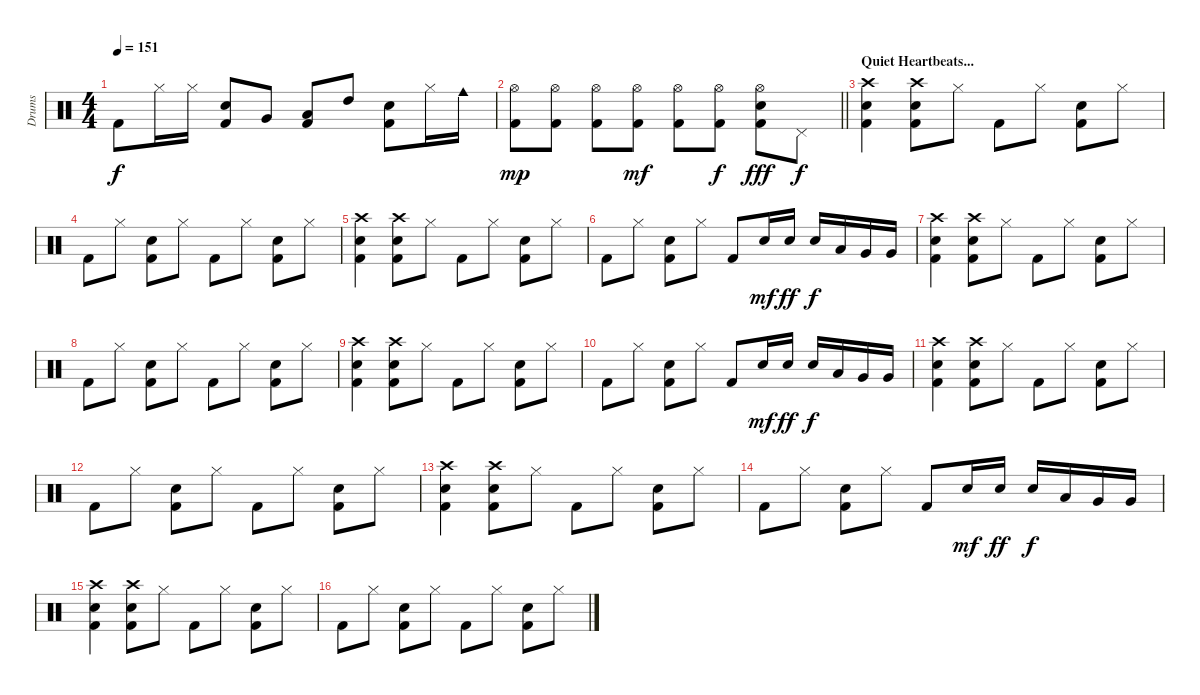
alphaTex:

\track ("Drums" "Drums") {instrument percussion}
\staff {score}
\articulation defaults
\ts (4 4)
\tempo 151
\clef neutral
\ks c "Kick (hit) 2".8{dy f} "Hi-Hat (closed)".16 "Hi-Hat (closed)".16
("Electric Snare (hit)" "Kick (hit) 2").8 "Very Low Tom (hit)".8 ("Low Tom (hit)" "Kick (hit) 2").8 "High Tom (hit)".8 ("Electric Snare (hit)" "Kick (hit) 2").8 "Hi-Hat (closed)".16 "Cowbell medium (hit)".16 |
\barLineRight lightlight
("Hi-Hat (open)" "Kick (hit) 2").8{dy mp} ("Hi-Hat (open)" "Kick (hit) 2").8 ("Hi-Hat (open)" "Kick (hit) 2").8 ("Hi-Hat (open)" "Kick (hit) 2").8{dy mf} ("Hi-Hat (open)" "Kick (hit) 2").8 ("Hi-Hat (open)" "Kick (hit) 2").8{dy f} ("Hi-Hat (open)" "Electric Snare (hit)" "Kick (hit) 2").8{dy fff} "Pedal Hi-Hat (hit)".8{dy f} |
\section ("" "Quiet Heartbeats...")
("Crash high (hit)" "Electric Snare (hit)" "Kick (hit) 2").4 ("Crash high (hit)" "Electric Snare (hit)" "Kick (hit) 2").8 "Hi-Hat (closed)".8 "Kick (hit) 2".8 "Hi-Hat (closed)".8 ("Electric Snare (hit)" "Kick (hit) 2").8 "Hi-Hat (closed)".8 |
"Kick (hit) 2".8 "Hi-Hat (closed)".8 ("Electric Snare (hit)" "Kick (hit) 2").8 "Hi-Hat (closed)".8 "Kick (hit) 2".8 "Hi-Hat (closed)".8 ("Electric Snare (hit)" "Kick (hit) 2").8 "Hi-Hat (closed)".8 |
("Crash high (hit)" "Electric Snare (hit)" "Kick (hit) 2").4 ("Crash high (hit)" "Electric Snare (hit)" "Kick (hit) 2").8 "Hi-Hat (closed)".8 "Kick (hit) 2".8 "Hi-Hat (closed)".8 ("Electric Snare (hit)" "Kick (hit) 2").8 "Hi-Hat (closed)".8 |
"Kick (hit) 2".8 "Hi-Hat (closed)".8 ("Electric Snare (hit)" "Kick (hit) 2").8 "Hi-Hat (closed)".8 "Kick (hit) 2".8 "Electric Snare (hit)".16{dy mf} "Electric Snare (hit)".16{dy ff} "Electric Snare (hit)".16{dy f} "Low Tom (hit)".16 "Very Low Tom (hit)".16 "Very Low Tom (hit)".16 |
("Crash high (hit)" "Electric Snare (hit)" "Kick (hit) 2").4 ("Crash high (hit)" "Electric Snare (hit)" "Kick (hit) 2").8 "Hi-Hat (closed)".8 "Kick (hit) 2".8 "Hi-Hat (closed)".8 ("Electric Snare (hit)" "Kick (hit) 2").8 "Hi-Hat (closed)".8 |
"Kick (hit) 2".8 "Hi-Hat (closed)".8 ("Electric Snare (hit)" "Kick (hit) 2").8 "Hi-Hat (closed)".8 "Kick (hit) 2".8 "Hi-Hat (closed)".8 ("Electric Snare (hit)" "Kick (hit) 2").8 "Hi-Hat (closed)".8 |
("Crash high (hit)" "Electric Snare (hit)" "Kick (hit) 2").4 ("Crash high (hit)" "Electric Snare (hit)" "Kick (hit) 2").8 "Hi-Hat (closed)".8 "Kick (hit) 2".8 "Hi-Hat (closed)".8 ("Electric Snare (hit)" "Kick (hit) 2").8 "Hi-Hat (closed)".8 |
"Kick (hit) 2".8 "Hi-Hat (closed)".8 ("Electric Snare (hit)" "Kick (hit) 2").8 "Hi-Hat (closed)".8 "Kick (hit) 2".8 "Electric Snare (hit)".16{dy mf} "Electric Snare (hit)".16{dy ff} "Electric Snare (hit)".16{dy f} "Low Tom (hit)".16 "Very Low Tom (hit)".16 "Very Low Tom (hit)".16 |
("Crash high (hit)" "Electric Snare (hit)" "Kick (hit) 2").4 ("Crash high (hit)" "Electric Snare (hit)" "Kick (hit) 2").8 "Hi-Hat (closed)".8 "Kick (hit) 2".8 "Hi-Hat (closed)".8 ("Electric Snare (hit)" "Kick (hit) 2").8 "Hi-Hat (closed)".8 |
"Kick (hit) 2".8 "Hi-Hat (closed)".8 ("Electric Snare (hit)" "Kick (hit) 2").8 "Hi-Hat (closed)".8 "Kick (hit) 2".8 "Hi-Hat (closed)".8 ("Electric Snare (hit)" "Kick (hit) 2").8 "Hi-Hat (closed)".8 |
("Crash high (hit)" "Electric Snare (hit)" "Kick (hit) 2").4 ("Crash high (hit)" "Electric Snare (hit)" "Kick (hit) 2").8 "Hi-Hat (closed)".8 "Kick (hit) 2".8 "Hi-Hat (closed)".8 ("Electric Snare (hit)" "Kick (hit) 2").8 "Hi-Hat (closed)".8 |
"Kick (hit) 2".8 "Hi-Hat (closed)".8 ("Electric Snare (hit)" "Kick (hit) 2").8 "Hi-Hat (closed)".8 "Kick (hit) 2".8 "Electric Snare (hit)".16{dy mf} "Electric Snare (hit)".16{dy ff} "Electric Snare (hit)".16{dy f} "Low Tom (hit)".16 "Very Low Tom (hit)".16 "Very Low Tom (hit)".16 |
("Crash high (hit)" "Electric Snare (hit)" "Kick (hit) 2").4 ("Crash high (hit)" "Electric Snare (hit)" "Kick (hit) 2").8 "Hi-Hat (closed)".8 "Kick (hit) 2".8 "Hi-Hat (closed)".8 ("Electric Snare (hit)" "Kick (hit) 2").8 "Hi-Hat (closed)".8 |
"Kick (hit) 2".8 "Hi-Hat (closed)".8 ("Electric Snare (hit)" "Kick (hit) 2").8 "Hi-Hat (closed)".8 "Kick (hit) 2".8 "Hi-Hat (closed)".8 ("Electric Snare (hit)" "Kick (hit) 2").8 "Hi-Hat (closed)".8
